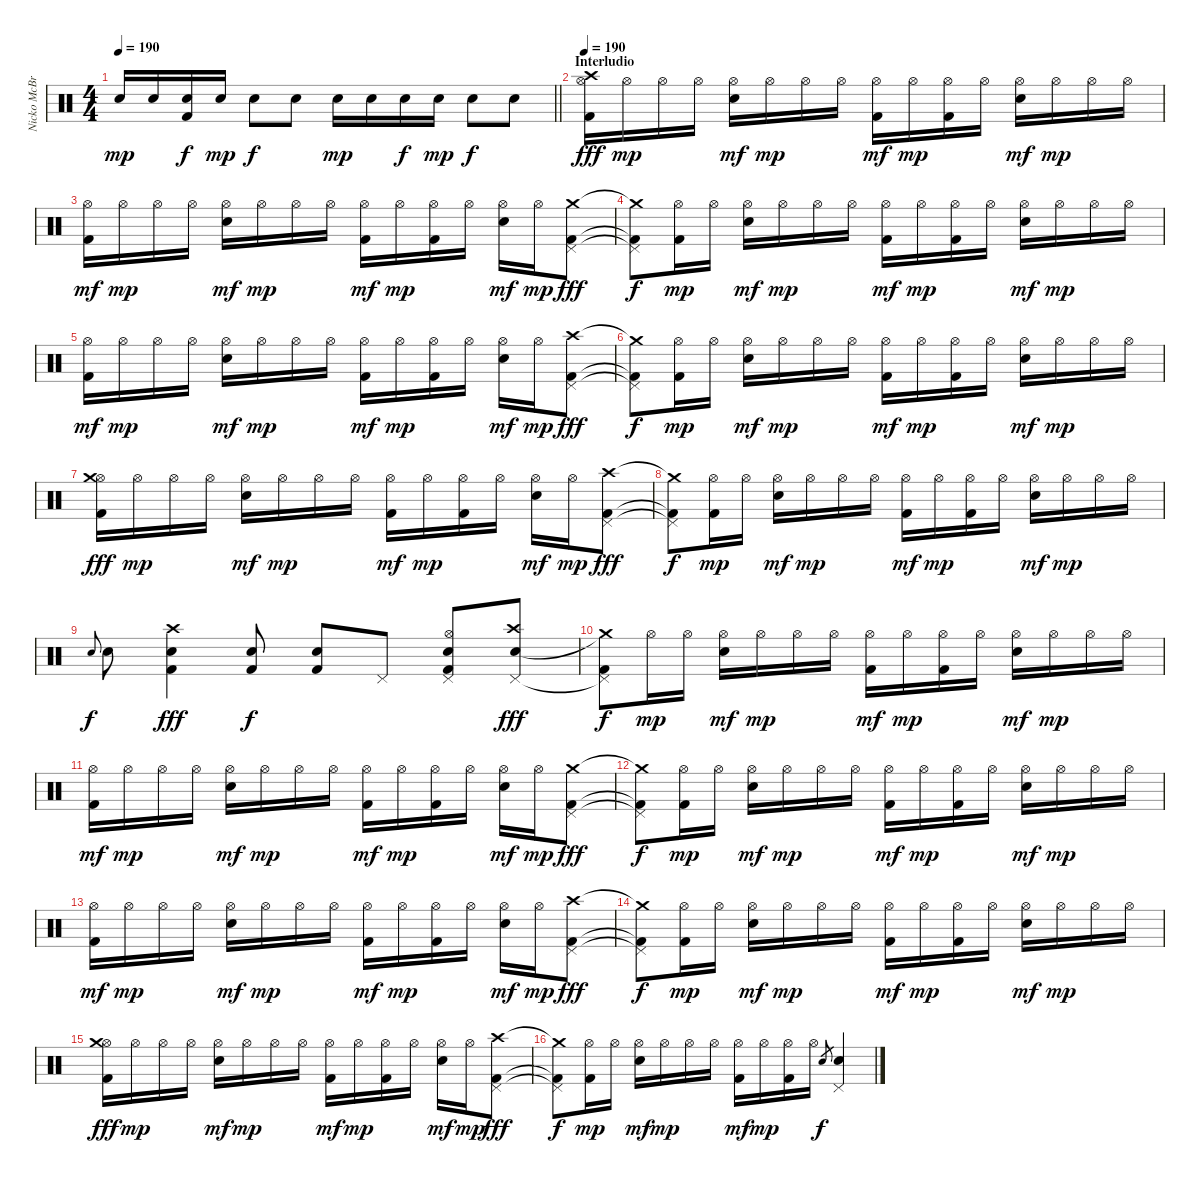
\track ("Nicko McBrain" "Nicko McBr") {instrument percussion}
\staff {score}
\articulation defaults
\ts (4 4)
\tempo 190
\clef neutral
\barLineRight lightlight
\ks c "Snare (hit) 2".16{dy mp} "Snare (hit) 2".16
("Snare (hit) 2" "Kick (hit) 2").16{dy f} "Snare (hit) 2".16{dy mp} "Snare (hit) 2".8{dy f} "Snare (hit) 2".8 "Snare (hit) 2".16{dy mp} "Snare (hit) 2".16 "Snare (hit) 2".16{dy f} "Snare (hit) 2".16{dy mp} "Snare (hit) 2".8{dy f} "Snare (hit) 2".8 |
\section ("" "Interludio")
\tempo 190
("Hi-Hat (open)" "Crash high (hit)" "Kick (hit) 2").16{dy fff} "Hi-Hat (open)".16{dy mp} "Hi-Hat (open)".16 "Hi-Hat (open)".16 ("Hi-Hat (open)" "Snare (hit) 2").16{dy mf} "Hi-Hat (open)".16{dy mp} "Hi-Hat (open)".16 "Hi-Hat (open)".16 ("Hi-Hat (open)" "Kick (hit) 2").16{dy mf} "Hi-Hat (open)".16{dy mp} ("Hi-Hat (open)" "Kick (hit) 2").16 "Hi-Hat (open)".16 ("Hi-Hat (open)" "Snare (hit) 2").16{dy mf} "Hi-Hat (open)".16{dy mp} "Hi-Hat (open)".16 "Hi-Hat (open)".16 |
("Hi-Hat (open)" "Kick (hit) 2").16{dy mf} "Hi-Hat (open)".16{dy mp} "Hi-Hat (open)".16 "Hi-Hat (open)".16 ("Hi-Hat (open)" "Snare (hit) 2").16{dy mf} "Hi-Hat (open)".16{dy mp} "Hi-Hat (open)".16 "Hi-Hat (open)".16 ("Hi-Hat (open)" "Kick (hit) 2").16{dy mf} "Hi-Hat (open)".16{dy mp} ("Hi-Hat (open)" "Kick (hit) 2").16 "Hi-Hat (open)".16 ("Hi-Hat (open)" "Snare (hit) 2").16{dy mf} "Hi-Hat (open)".16{dy mp} ("Pedal Hi-Hat (hit)" "Crash medium (hit)" "Kick (hit) 2").8{dy fff} |
("Pedal Hi-Hat (hit)"{t} "Crash medium (hit)"{t} "Kick (hit) 2"{t}).8{dy f} ("Hi-Hat (open)" "Kick (hit) 2").16{dy mp} "Hi-Hat (open)".16 ("Hi-Hat (open)" "Snare (hit) 2").16{dy mf} "Hi-Hat (open)".16{dy mp} "Hi-Hat (open)".16 "Hi-Hat (open)".16 ("Hi-Hat (open)" "Kick (hit) 2").16{dy mf} "Hi-Hat (open)".16{dy mp} ("Hi-Hat (open)" "Kick (hit) 2").16 "Hi-Hat (open)".16 ("Hi-Hat (open)" "Snare (hit) 2").16{dy mf} "Hi-Hat (open)".16{dy mp} "Hi-Hat (open)".16 "Hi-Hat (open)".16 |
("Hi-Hat (open)" "Kick (hit) 2").16{dy mf} "Hi-Hat (open)".16{dy mp} "Hi-Hat (open)".16 "Hi-Hat (open)".16 ("Hi-Hat (open)" "Snare (hit) 2").16{dy mf} "Hi-Hat (open)".16{dy mp} "Hi-Hat (open)".16 "Hi-Hat (open)".16 ("Hi-Hat (open)" "Kick (hit) 2").16{dy mf} "Hi-Hat (open)".16{dy mp} ("Hi-Hat (open)" "Kick (hit) 2").16 "Hi-Hat (open)".16 ("Hi-Hat (open)" "Snare (hit) 2").16{dy mf} "Hi-Hat (open)".16{dy mp} ("Pedal Hi-Hat (hit)" "Crash high (hit)" "Kick (hit) 2").8{dy fff} |
("Pedal Hi-Hat (hit)"{t} "Crash medium (hit)"{t} "Kick (hit) 2"{t}).8{dy f} ("Hi-Hat (open)" "Kick (hit) 2").16{dy mp} "Hi-Hat (open)".16 ("Hi-Hat (open)" "Snare (hit) 2").16{dy mf} "Hi-Hat (open)".16{dy mp} "Hi-Hat (open)".16 "Hi-Hat (open)".16 ("Hi-Hat (open)" "Kick (hit) 2").16{dy mf} "Hi-Hat (open)".16{dy mp} ("Hi-Hat (open)" "Kick (hit) 2").16 "Hi-Hat (open)".16 ("Hi-Hat (open)" "Snare (hit) 2").16{dy mf} "Hi-Hat (open)".16{dy mp} "Hi-Hat (open)".16 "Hi-Hat (open)".16 |
("Hi-Hat (open)" "Crash medium (hit)" "Kick (hit) 2").16{dy fff} "Hi-Hat (open)".16{dy mp} "Hi-Hat (open)".16 "Hi-Hat (open)".16 ("Hi-Hat (open)" "Snare (hit) 2").16{dy mf} "Hi-Hat (open)".16{dy mp} "Hi-Hat (open)".16 "Hi-Hat (open)".16 ("Hi-Hat (open)" "Kick (hit) 2").16{dy mf} "Hi-Hat (open)".16{dy mp} ("Hi-Hat (open)" "Kick (hit) 2").16 "Hi-Hat (open)".16 ("Hi-Hat (open)" "Snare (hit) 2").16{dy mf} "Hi-Hat (open)".16{dy mp} ("Pedal Hi-Hat (hit)" "Crash high (hit)" "Kick (hit) 2").8{dy fff} |
("Pedal Hi-Hat (hit)"{t} "Crash medium (hit)"{t} "Kick (hit) 2"{t}).8{dy f} ("Hi-Hat (open)" "Kick (hit) 2").16{dy mp} "Hi-Hat (open)".16 ("Hi-Hat (open)" "Snare (hit) 2").16{dy mf} "Hi-Hat (open)".16{dy mp} "Hi-Hat (open)".16 "Hi-Hat (open)".16 ("Hi-Hat (open)" "Kick (hit) 2").16{dy mf} "Hi-Hat (open)".16{dy mp} ("Hi-Hat (open)" "Kick (hit) 2").16 "Hi-Hat (open)".16 ("Hi-Hat (open)" "Snare (hit) 2").16{dy mf} "Hi-Hat (open)".16{dy mp} "Hi-Hat (open)".16 "Hi-Hat (open)".16 |
"Snare (hit) 2".8{gr onbeat dy f} "Snare (hit) 2".8 ("Snare (hit) 2" "Crash high (hit)" "Kick (hit) 2").4{dy fff} ("Snare (hit) 2" "Kick (hit) 2").8{dy f} ("Snare (hit) 2" "Kick (hit) 2").8 "Pedal Hi-Hat (hit)".8 ("Pedal Hi-Hat (hit)" "Snare (hit) 2" "Hi-Hat (open)" "Kick (hit) 2").8 ("Pedal Hi-Hat (hit)" "Snare (hit) 2" "Crash high (hit)").8{dy fff} |
("Pedal Hi-Hat (hit)"{t} "Crash medium (hit)"{t} "Kick (hit) 2").8{dy f} "Hi-Hat (open)".16{dy mp} "Hi-Hat (open)".16 ("Hi-Hat (open)" "Snare (hit) 2").16{dy mf} "Hi-Hat (open)".16{dy mp} "Hi-Hat (open)".16 "Hi-Hat (open)".16 ("Hi-Hat (open)" "Kick (hit) 2").16{dy mf} "Hi-Hat (open)".16{dy mp} ("Hi-Hat (open)" "Kick (hit) 2").16 "Hi-Hat (open)".16 ("Hi-Hat (open)" "Snare (hit) 2").16{dy mf} "Hi-Hat (open)".16{dy mp} "Hi-Hat (open)".16 "Hi-Hat (open)".16 |
("Hi-Hat (open)" "Kick (hit) 2").16{dy mf} "Hi-Hat (open)".16{dy mp} "Hi-Hat (open)".16 "Hi-Hat (open)".16 ("Hi-Hat (open)" "Snare (hit) 2").16{dy mf} "Hi-Hat (open)".16{dy mp} "Hi-Hat (open)".16 "Hi-Hat (open)".16 ("Hi-Hat (open)" "Kick (hit) 2").16{dy mf} "Hi-Hat (open)".16{dy mp} ("Hi-Hat (open)" "Kick (hit) 2").16 "Hi-Hat (open)".16 ("Hi-Hat (open)" "Snare (hit) 2").16{dy mf} "Hi-Hat (open)".16{dy mp} ("Pedal Hi-Hat (hit)" "Crash medium (hit)" "Kick (hit) 2").8{dy fff} |
("Pedal Hi-Hat (hit)"{t} "Crash medium (hit)"{t} "Kick (hit) 2"{t}).8{dy f} ("Hi-Hat (open)" "Kick (hit) 2").16{dy mp} "Hi-Hat (open)".16 ("Hi-Hat (open)" "Snare (hit) 2").16{dy mf} "Hi-Hat (open)".16{dy mp} "Hi-Hat (open)".16 "Hi-Hat (open)".16 ("Hi-Hat (open)" "Kick (hit) 2").16{dy mf} "Hi-Hat (open)".16{dy mp} ("Hi-Hat (open)" "Kick (hit) 2").16 "Hi-Hat (open)".16 ("Hi-Hat (open)" "Snare (hit) 2").16{dy mf} "Hi-Hat (open)".16{dy mp} "Hi-Hat (open)".16 "Hi-Hat (open)".16 |
("Hi-Hat (open)" "Kick (hit) 2").16{dy mf} "Hi-Hat (open)".16{dy mp} "Hi-Hat (open)".16 "Hi-Hat (open)".16 ("Hi-Hat (open)" "Snare (hit) 2").16{dy mf} "Hi-Hat (open)".16{dy mp} "Hi-Hat (open)".16 "Hi-Hat (open)".16 ("Hi-Hat (open)" "Kick (hit) 2").16{dy mf} "Hi-Hat (open)".16{dy mp} ("Hi-Hat (open)" "Kick (hit) 2").16 "Hi-Hat (open)".16 ("Hi-Hat (open)" "Snare (hit) 2").16{dy mf} "Hi-Hat (open)".16{dy mp} ("Pedal Hi-Hat (hit)" "Crash high (hit)" "Kick (hit) 2").8{dy fff} |
("Pedal Hi-Hat (hit)"{t} "Crash medium (hit)"{t} "Kick (hit) 2"{t}).8{dy f} ("Hi-Hat (open)" "Kick (hit) 2").16{dy mp} "Hi-Hat (open)".16 ("Hi-Hat (open)" "Snare (hit) 2").16{dy mf} "Hi-Hat (open)".16{dy mp} "Hi-Hat (open)".16 "Hi-Hat (open)".16 ("Hi-Hat (open)" "Kick (hit) 2").16{dy mf} "Hi-Hat (open)".16{dy mp} ("Hi-Hat (open)" "Kick (hit) 2").16 "Hi-Hat (open)".16 ("Hi-Hat (open)" "Snare (hit) 2").16{dy mf} "Hi-Hat (open)".16{dy mp} "Hi-Hat (open)".16 "Hi-Hat (open)".16 |
("Hi-Hat (open)" "Crash medium (hit)" "Kick (hit) 2").16{dy fff} "Hi-Hat (open)".16{dy mp} "Hi-Hat (open)".16 "Hi-Hat (open)".16 ("Hi-Hat (open)" "Snare (hit) 2").16{dy mf} "Hi-Hat (open)".16{dy mp} "Hi-Hat (open)".16 "Hi-Hat (open)".16 ("Hi-Hat (open)" "Kick (hit) 2").16{dy mf} "Hi-Hat (open)".16{dy mp} ("Hi-Hat (open)" "Kick (hit) 2").16 "Hi-Hat (open)".16 ("Hi-Hat (open)" "Snare (hit) 2").16{dy mf} "Hi-Hat (open)".16{dy mp} ("Pedal Hi-Hat (hit)" "Crash high (hit)" "Kick (hit) 2").8{dy fff} |
("Pedal Hi-Hat (hit)"{t} "Crash medium (hit)"{t} "Kick (hit) 2"{t}).8{dy f} ("Hi-Hat (open)" "Kick (hit) 2").16{dy mp} "Hi-Hat (open)".16 ("Hi-Hat (open)" "Snare (hit) 2").16{dy mf} "Hi-Hat (open)".16{dy mp} "Hi-Hat (open)".16 "Hi-Hat (open)".16 ("Hi-Hat (open)" "Kick (hit) 2").16{dy mf} "Hi-Hat (open)".16{dy mp} ("Hi-Hat (open)" "Kick (hit) 2").16 "Hi-Hat (open)".16 "Snare (hit) 2".8{gr dy f} ("Pedal Hi-Hat (hit)" "Snare (hit) 2").4
